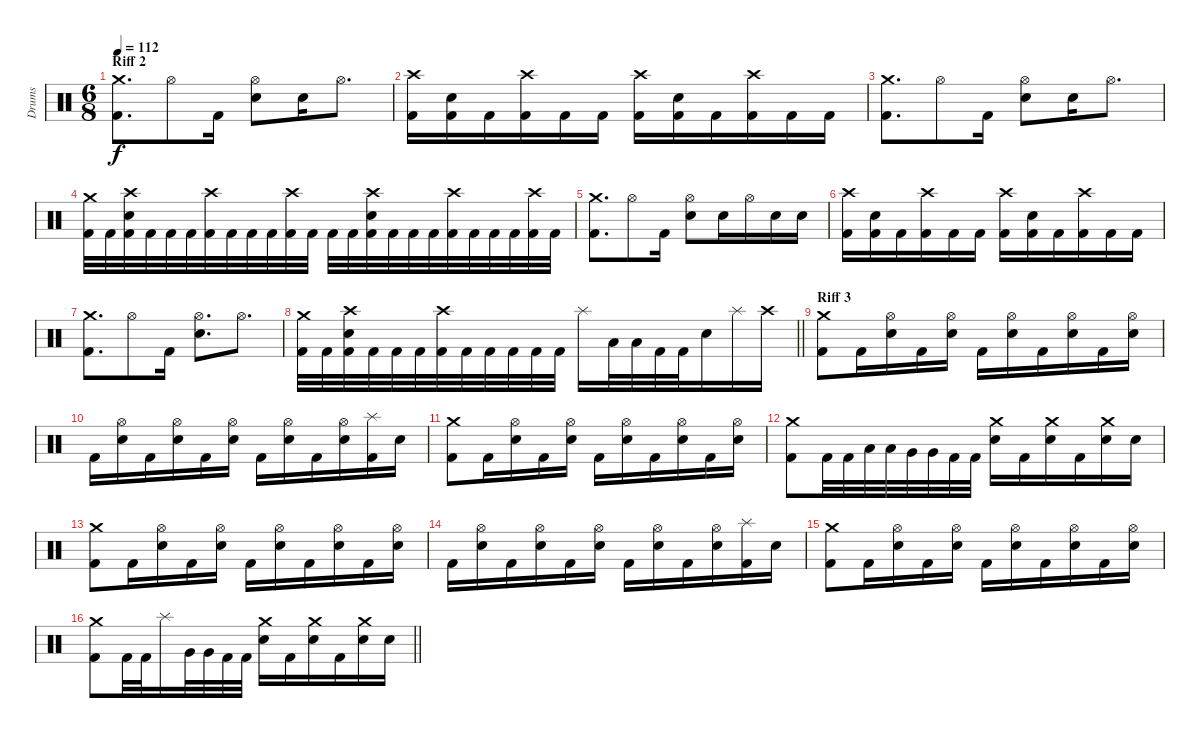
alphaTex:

\track ("Drums" "Drums") {instrument percussion}
\staff {score}
\articulation defaults
\ts (6 8)
\section ("" "Riff 2")
\tempo 112
\clef neutral
\ks c
("Crash medium (hit)" "Kick (hit) 2").8{d dy f} "Hi-Hat (open)".8 "Kick (hit) 2".16 ("Electric Snare (hit)" "Hi-Hat (open)").8 "Electric Snare (hit)".16 "Hi-Hat (open)".8{d} |
("Kick (hit) 2" "Crash high (hit)").16 ("Kick (hit) 2" "Electric Snare (hit)").16 "Kick (hit) 2".16 ("Kick (hit) 2" "Crash high (hit)").16 "Kick (hit) 2".16 "Kick (hit) 2".16 ("Kick (hit) 2" "Crash high (hit)").16 ("Kick (hit) 2" "Electric Snare (hit)").16 "Kick (hit) 2".16 ("Kick (hit) 2" "Crash high (hit)").16 "Kick (hit) 2".16 "Kick (hit) 2".16 |
("Crash medium (hit)" "Kick (hit) 2").8{d} "Hi-Hat (open)".8 "Kick (hit) 2".16 ("Electric Snare (hit)" "Hi-Hat (open)").8 "Electric Snare (hit)".16 "Hi-Hat (open)".8{d} |
("Crash medium (hit)" "Kick (hit) 2").32 "Kick (hit) 2".32 ("Electric Snare (hit)" "Kick (hit) 2" "Crash high (hit)").32 "Kick (hit) 2".32 "Kick (hit) 2".32 "Kick (hit) 2".32 ("Crash high (hit)" "Kick (hit) 2").32 "Kick (hit) 2".32 "Kick (hit) 2".32 "Kick (hit) 2".32 ("Crash high (hit)" "Kick (hit) 2").32 "Kick (hit) 2".32 "Kick (hit) 2".32 "Kick (hit) 2".32 ("Electric Snare (hit)" "Kick (hit) 2" "Crash high (hit)").32 "Kick (hit) 2".32 "Kick (hit) 2".32 "Kick (hit) 2".32 ("Crash high (hit)" "Kick (hit) 2").32 "Kick (hit) 2".32 "Kick (hit) 2".32 "Kick (hit) 2".32 ("Crash high (hit)" "Kick (hit) 2").32 "Kick (hit) 2".32 |
("Crash medium (hit)" "Kick (hit) 2").8{d} "Hi-Hat (open)".8 "Kick (hit) 2".16 ("Electric Snare (hit)" "Hi-Hat (open)").8 "Electric Snare (hit)".16 "Hi-Hat (open)".16 "Electric Snare (hit)".16 "Electric Snare (hit)".16 |
("Kick (hit) 2" "Crash high (hit)").16 ("Kick (hit) 2" "Electric Snare (hit)").16 "Kick (hit) 2".16 ("Kick (hit) 2" "Crash high (hit)").16 "Kick (hit) 2".16 "Kick (hit) 2".16 ("Kick (hit) 2" "Crash high (hit)").16 ("Kick (hit) 2" "Electric Snare (hit)").16 "Kick (hit) 2".16 ("Kick (hit) 2" "Crash high (hit)").16 "Kick (hit) 2".16 "Kick (hit) 2".16 |
("Crash medium (hit)" "Kick (hit) 2").8{d} "Hi-Hat (open)".8 "Kick (hit) 2".16 ("Electric Snare (hit)" "Hi-Hat (open)").8{d} "Hi-Hat (open)".8{d} |
\barLineRight lightlight
("Crash medium (hit)" "Kick (hit) 2").32 "Kick (hit) 2".32 ("Electric Snare (hit)" "Kick (hit) 2" "Crash high (hit)").32 "Kick (hit) 2".32 "Kick (hit) 2".32 "Kick (hit) 2".32 ("Crash high (hit)" "Kick (hit) 2").32 "Kick (hit) 2".32 "Kick (hit) 2".32 "Kick (hit) 2".32 "Kick (hit) 2".32 "Kick (hit) 2".32 "Splash (hit)".16 "Low Tom (hit)".32 "Low Tom (hit)".32 "Kick (hit) 2".32 "Kick (hit) 2".32 "Electric Snare (hit)".16 "Splash (hit)".16 "Crash high (hit)".16 |
\section ("" "Riff 3")
("Crash medium (hit)" "Kick (hit) 2").8 "Kick (hit) 2".16 ("Hi-Hat (open)" "Electric Snare (hit)").16 "Kick (hit) 2".16 ("Hi-Hat (open)" "Electric Snare (hit)").16 "Kick (hit) 2".16 ("Hi-Hat (open)" "Electric Snare (hit)").16 "Kick (hit) 2".16 ("Hi-Hat (open)" "Electric Snare (hit)").16 "Kick (hit) 2".16 ("Hi-Hat (open)" "Electric Snare (hit)").16 |
"Kick (hit) 2".16 ("Hi-Hat (open)" "Electric Snare (hit)").16 "Kick (hit) 2".16 ("Hi-Hat (open)" "Electric Snare (hit)").16 "Kick (hit) 2".16 ("Hi-Hat (open)" "Electric Snare (hit)").16 "Kick (hit) 2".16 ("Hi-Hat (open)" "Electric Snare (hit)").16 "Kick (hit) 2".16 ("Hi-Hat (open)" "Electric Snare (hit)").16 ("Splash (hit)" "Kick (hit) 2").16 "Electric Snare (hit)".16 |
("Crash medium (hit)" "Kick (hit) 2").8 "Kick (hit) 2".16 ("Hi-Hat (open)" "Electric Snare (hit)").16 "Kick (hit) 2".16 ("Hi-Hat (open)" "Electric Snare (hit)").16 "Kick (hit) 2".16 ("Hi-Hat (open)" "Electric Snare (hit)").16 "Kick (hit) 2".16 ("Hi-Hat (open)" "Electric Snare (hit)").16 "Kick (hit) 2".16 ("Hi-Hat (open)" "Electric Snare (hit)").16 |
("Kick (hit) 2" "Crash medium (hit)").8 "Kick (hit) 2".32 "Kick (hit) 2".32 "Low Tom (hit)".32 "Low Tom (hit)".32 "Very Low Tom (hit)".32 "Very Low Tom (hit)".32 "Kick (hit) 2".32 "Kick (hit) 2".32 ("Electric Snare (hit)" "Crash medium (hit)").16 "Kick (hit) 2".16 ("Electric Snare (hit)" "Crash medium (hit)").16 "Kick (hit) 2".16 ("Electric Snare (hit)" "Crash medium (hit)").16 "Electric Snare (hit)".16 |
("Crash medium (hit)" "Kick (hit) 2").8 "Kick (hit) 2".16 ("Hi-Hat (open)" "Electric Snare (hit)").16 "Kick (hit) 2".16 ("Hi-Hat (open)" "Electric Snare (hit)").16 "Kick (hit) 2".16 ("Hi-Hat (open)" "Electric Snare (hit)").16 "Kick (hit) 2".16 ("Hi-Hat (open)" "Electric Snare (hit)").16 "Kick (hit) 2".16 ("Hi-Hat (open)" "Electric Snare (hit)").16 |
"Kick (hit) 2".16 ("Hi-Hat (open)" "Electric Snare (hit)").16 "Kick (hit) 2".16 ("Hi-Hat (open)" "Electric Snare (hit)").16 "Kick (hit) 2".16 ("Hi-Hat (open)" "Electric Snare (hit)").16 "Kick (hit) 2".16 ("Hi-Hat (open)" "Electric Snare (hit)").16 "Kick (hit) 2".16 ("Hi-Hat (open)" "Electric Snare (hit)").16 ("Splash (hit)" "Kick (hit) 2").16 "Electric Snare (hit)".16 |
("Crash medium (hit)" "Kick (hit) 2").8 "Kick (hit) 2".16 ("Hi-Hat (open)" "Electric Snare (hit)").16 "Kick (hit) 2".16 ("Hi-Hat (open)" "Electric Snare (hit)").16 "Kick (hit) 2".16 ("Hi-Hat (open)" "Electric Snare (hit)").16 "Kick (hit) 2".16 ("Hi-Hat (open)" "Electric Snare (hit)").16 "Kick (hit) 2".16 ("Hi-Hat (open)" "Electric Snare (hit)").16 |
\barLineRight lightlight
("Kick (hit) 2" "Crash medium (hit)").8 "Kick (hit) 2".32 "Kick (hit) 2".32 "Splash (hit)".16 "Very Low Tom (hit)".32 "Very Low Tom (hit)".32 "Kick (hit) 2".32 "Kick (hit) 2".32 ("Electric Snare (hit)" "Crash medium (hit)").16 "Kick (hit) 2".16 ("Electric Snare (hit)" "Crash medium (hit)").16 "Kick (hit) 2".16 ("Electric Snare (hit)" "Crash medium (hit)").16 "Electric Snare (hit)".16
